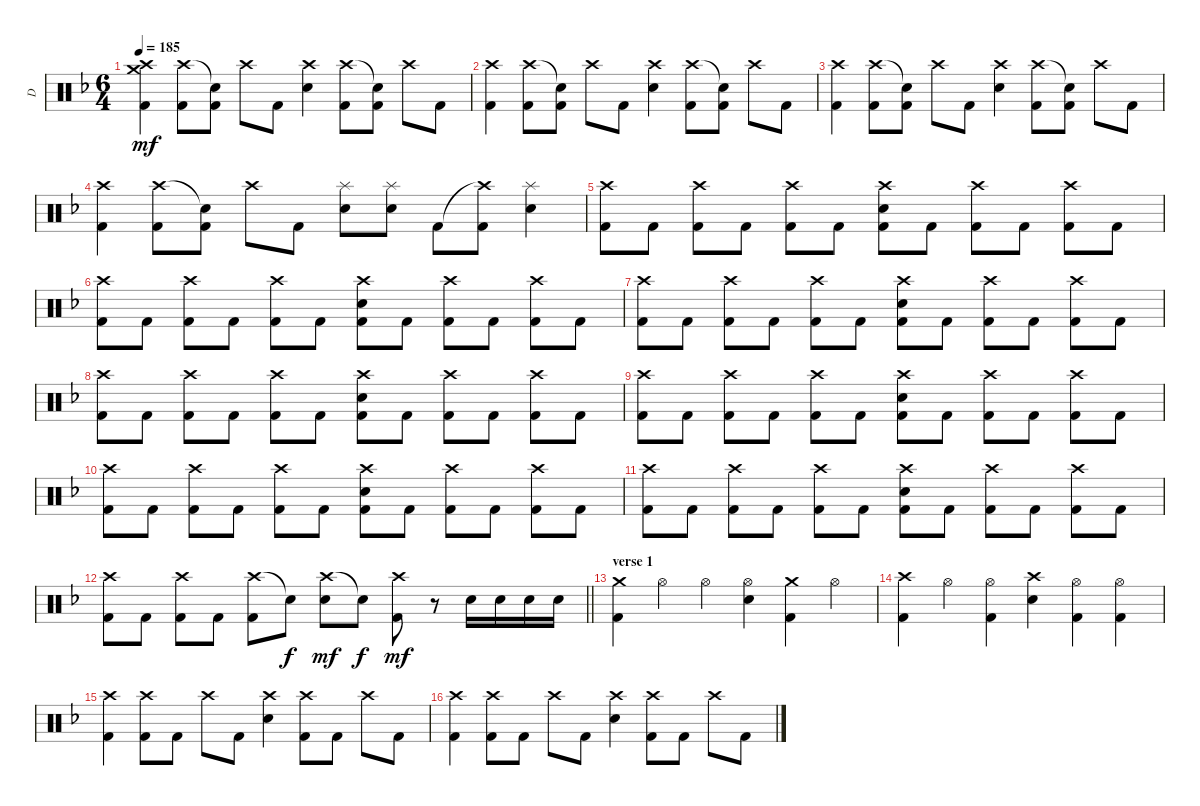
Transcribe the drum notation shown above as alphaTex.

\track ("D" "D") {instrument percussion}
\staff {score}
\articulation defaults
\ts (6 4)
\tempo 185
\clef neutral
\ks dminor
("Crash high (hit)" "Crash medium (hit)" "Kick (hit) 2").4{dy mf} ("Crash high (hit)" "Kick (hit) 2").8 ("Snare (hit)"{t} "Kick (hit) 2").8 "Crash high (hit)".8 "Kick (hit) 2".8 ("Crash high (hit)" "Snare (hit) 2").4 ("Crash high (hit)" "Kick (hit) 2").8 ("Snare (hit)"{t} "Kick (hit) 2").8 "Crash high (hit)".8 "Kick (hit) 2".8 |
("Crash high (hit)" "Kick (hit) 2").4 ("Crash high (hit)" "Kick (hit) 2").8 ("Snare (hit)"{t} "Kick (hit) 2").8 "Crash high (hit)".8 "Kick (hit) 2".8 ("Crash high (hit)" "Snare (hit) 2").4 ("Crash high (hit)" "Kick (hit) 2").8 ("Snare (hit)"{t} "Kick (hit) 2").8 "Crash high (hit)".8 "Kick (hit) 2".8 |
("Crash high (hit)" "Kick (hit) 2").4 ("Crash high (hit)" "Kick (hit) 2").8 ("Snare (hit)"{t} "Kick (hit) 2").8 "Crash high (hit)".8 "Kick (hit) 2".8 ("Crash high (hit)" "Snare (hit) 2").4 ("Crash high (hit)" "Kick (hit) 2").8 ("Snare (hit)"{t} "Kick (hit) 2").8 "Crash high (hit)".8 "Kick (hit) 2".8 |
("Crash high (hit)" "Kick (hit) 2").4 ("Crash high (hit)" "Kick (hit) 2").8 ("Snare (hit)"{t} "Kick (hit) 2").8 "Crash high (hit)".8 "Kick (hit) 2".8 ("Splash (hit)" "Snare (hit) 2").8 ("Splash (hit)" "Snare (hit) 2").8 "Kick (hit) 2".8 ("Crash high (hit)"{t} "Kick (hit) 2").8 ("Splash (hit)" "Snare (hit) 2").4 |
("Crash high (hit)" "Kick (hit) 2").8 "Kick (hit) 2".8 ("Crash high (hit)" "Kick (hit) 2").8 "Kick (hit) 2".8 ("Crash high (hit)" "Kick (hit) 2").8 "Kick (hit) 2".8 ("Crash high (hit)" "Snare (hit) 2" "Kick (hit) 2").8 "Kick (hit) 2".8 ("Crash high (hit)" "Kick (hit) 2").8 "Kick (hit) 2".8 ("Crash high (hit)" "Kick (hit) 2").8 "Kick (hit) 2".8 |
("Crash high (hit)" "Kick (hit) 2").8 "Kick (hit) 2".8 ("Crash high (hit)" "Kick (hit) 2").8 "Kick (hit) 2".8 ("Crash high (hit)" "Kick (hit) 2").8 "Kick (hit) 2".8 ("Crash high (hit)" "Snare (hit) 2" "Kick (hit) 2").8 "Kick (hit) 2".8 ("Crash high (hit)" "Kick (hit) 2").8 "Kick (hit) 2".8 ("Crash high (hit)" "Kick (hit) 2").8 "Kick (hit) 2".8 |
("Crash high (hit)" "Kick (hit) 2").8 "Kick (hit) 2".8 ("Crash high (hit)" "Kick (hit) 2").8 "Kick (hit) 2".8 ("Crash high (hit)" "Kick (hit) 2").8 "Kick (hit) 2".8 ("Crash high (hit)" "Snare (hit) 2" "Kick (hit) 2").8 "Kick (hit) 2".8 ("Crash high (hit)" "Kick (hit) 2").8 "Kick (hit) 2".8 ("Crash high (hit)" "Kick (hit) 2").8 "Kick (hit) 2".8 |
("Crash high (hit)" "Kick (hit) 2").8 "Kick (hit) 2".8 ("Crash high (hit)" "Kick (hit) 2").8 "Kick (hit) 2".8 ("Crash high (hit)" "Kick (hit) 2").8 "Kick (hit) 2".8 ("Crash high (hit)" "Snare (hit) 2" "Kick (hit) 2").8 "Kick (hit) 2".8 ("Crash high (hit)" "Kick (hit) 2").8 "Kick (hit) 2".8 ("Crash high (hit)" "Kick (hit) 2").8 "Kick (hit) 2".8 |
("Crash high (hit)" "Kick (hit) 2").8 "Kick (hit) 2".8 ("Crash high (hit)" "Kick (hit) 2").8 "Kick (hit) 2".8 ("Crash high (hit)" "Kick (hit) 2").8 "Kick (hit) 2".8 ("Crash high (hit)" "Snare (hit) 2" "Kick (hit) 2").8 "Kick (hit) 2".8 ("Crash high (hit)" "Kick (hit) 2").8 "Kick (hit) 2".8 ("Crash high (hit)" "Kick (hit) 2").8 "Kick (hit) 2".8 |
("Crash high (hit)" "Kick (hit) 2").8 "Kick (hit) 2".8 ("Crash high (hit)" "Kick (hit) 2").8 "Kick (hit) 2".8 ("Crash high (hit)" "Kick (hit) 2").8 "Kick (hit) 2".8 ("Crash high (hit)" "Snare (hit) 2" "Kick (hit) 2").8 "Kick (hit) 2".8 ("Crash high (hit)" "Kick (hit) 2").8 "Kick (hit) 2".8 ("Crash high (hit)" "Kick (hit) 2").8 "Kick (hit) 2".8 |
("Crash high (hit)" "Kick (hit) 2").8 "Kick (hit) 2".8 ("Crash high (hit)" "Kick (hit) 2").8 "Kick (hit) 2".8 ("Crash high (hit)" "Kick (hit) 2").8 "Kick (hit) 2".8 ("Crash high (hit)" "Snare (hit) 2" "Kick (hit) 2").8 "Kick (hit) 2".8 ("Crash high (hit)" "Kick (hit) 2").8 "Kick (hit) 2".8 ("Crash high (hit)" "Kick (hit) 2").8 "Kick (hit) 2".8 |
\barLineRight lightlight
("Crash high (hit)" "Kick (hit) 2").8 "Kick (hit) 2".8 ("Crash high (hit)" "Kick (hit) 2").8 "Kick (hit) 2".8 ("Crash high (hit)" "Kick (hit) 2").8 "Snare (hit)"{t}.8{dy f} ("Crash high (hit)" "Snare (hit) 2").8{dy mf} "Snare (hit)"{t}.8{dy f} ("Crash high (hit)" "Kick (hit) 2").8{dy mf} r.8 "Snare (hit) 2".16 "Snare (hit) 2".16 "Snare (hit) 2".16 "Snare (hit) 2".16 |
\section ("" "verse 1")
("Crash medium (hit)" "Kick (hit) 2").4 "Hi-Hat (open)".4 "Hi-Hat (open)".4 ("Hi-Hat (open)" "Snare (hit) 2").4 ("Crash medium (hit)" "Kick (hit) 2").4 "Hi-Hat (open)".4 |
("Crash high (hit)" "Kick (hit) 2").4 "Hi-Hat (open)".4 ("Hi-Hat (open)" "Kick (hit) 2").4 ("Crash high (hit)" "Snare (hit) 2").4 ("Hi-Hat (open)" "Kick (hit) 2").4 ("Hi-Hat (open)" "Kick (hit) 2").4 |
("Crash high (hit)" "Kick (hit) 2").4 ("Crash high (hit)" "Kick (hit) 2").8 "Kick (hit) 2".8 "Crash high (hit)".8 "Kick (hit) 2".8 ("Crash high (hit)" "Snare (hit) 2").4 ("Crash high (hit)" "Kick (hit) 2").8 "Kick (hit) 2".8 "Crash high (hit)".8 "Kick (hit) 2".8 |
("Crash high (hit)" "Kick (hit) 2").4 ("Crash high (hit)" "Kick (hit) 2").8 "Kick (hit) 2".8 "Crash high (hit)".8 "Kick (hit) 2".8 ("Crash high (hit)" "Snare (hit) 2").4 ("Crash high (hit)" "Kick (hit) 2").8 "Kick (hit) 2".8 "Crash high (hit)".8 "Kick (hit) 2".8
